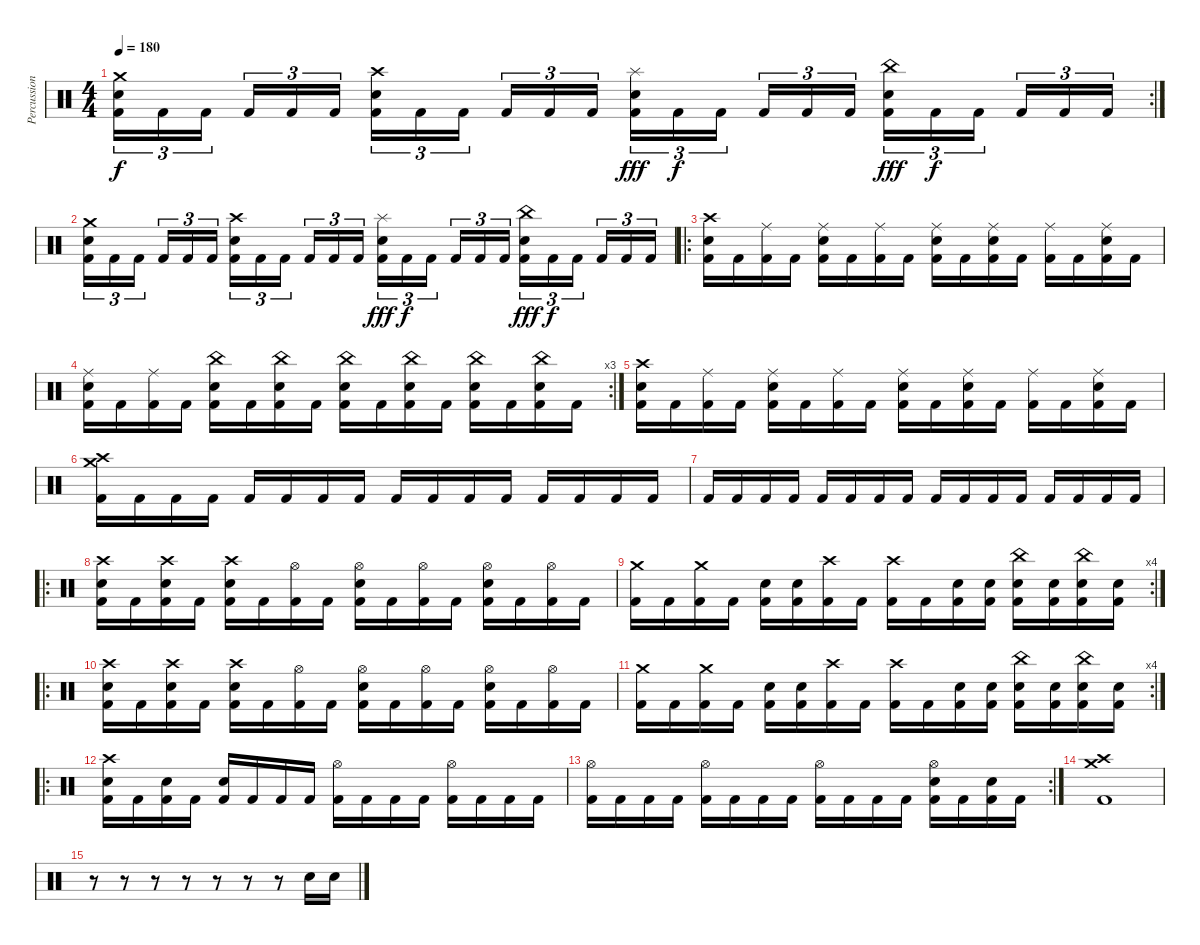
\track ("Percussion" "Percussion") {instrument percussion}
\staff {score}
\articulation defaults
\rc 2
\ts (4 4)
\tempo 180
\clef neutral
\ks c
("Crash medium (hit)" "Electric Snare (hit)" "Kick (hit) 2").16{tu (3 2) dy f} "Kick (hit) 2".16{tu (3 2)} "Kick (hit) 2".16{tu (3 2)} "Kick (hit) 2".16{tu (3 2)} "Kick (hit) 2".16{tu (3 2)} "Kick (hit) 2".16{tu (3 2)} ("Crash high (hit)" "Electric Snare (hit)" "Kick (hit) 2").16{tu (3 2)} "Kick (hit) 2".16{tu (3 2)} "Kick (hit) 2".16{tu (3 2)} "Kick (hit) 2".16{tu (3 2)} "Kick (hit) 2".16{tu (3 2)} "Kick (hit) 2".16{tu (3 2)} ("Splash (hit)" "Electric Snare (hit)" "Kick (hit) 2").16{tu (3 2) dy fff} "Kick (hit) 2".16{tu (3 2) dy f} "Kick (hit) 2".16{tu (3 2)} "Kick (hit) 2".16{tu (3 2)} "Kick (hit) 2".16{tu (3 2)} "Kick (hit) 2".16{tu (3 2)} ("China (hit)" "Electric Snare (hit)" "Kick (hit) 2").16{tu (3 2) dy fff} "Kick (hit) 2".16{tu (3 2) dy f} "Kick (hit) 2".16{tu (3 2)} "Kick (hit) 2".16{tu (3 2)} "Kick (hit) 2".16{tu (3 2)} "Kick (hit) 2".16{tu (3 2)} |
("Crash medium (hit)" "Electric Snare (hit)" "Kick (hit) 2").16{tu (3 2)} "Kick (hit) 2".16{tu (3 2)} "Kick (hit) 2".16{tu (3 2)} "Kick (hit) 2".16{tu (3 2)} "Kick (hit) 2".16{tu (3 2)} "Kick (hit) 2".16{tu (3 2)} ("Crash high (hit)" "Electric Snare (hit)" "Kick (hit) 2").16{tu (3 2)} "Kick (hit) 2".16{tu (3 2)} "Kick (hit) 2".16{tu (3 2)} "Kick (hit) 2".16{tu (3 2)} "Kick (hit) 2".16{tu (3 2)} "Kick (hit) 2".16{tu (3 2)} ("Splash (hit)" "Electric Snare (hit)" "Kick (hit) 2").16{tu (3 2) dy fff} "Kick (hit) 2".16{tu (3 2) dy f} "Kick (hit) 2".16{tu (3 2)} "Kick (hit) 2".16{tu (3 2)} "Kick (hit) 2".16{tu (3 2)} "Kick (hit) 2".16{tu (3 2)} ("China (hit)" "Electric Snare (hit)" "Kick (hit) 2").16{tu (3 2) dy fff} "Kick (hit) 2".16{tu (3 2) dy f} "Kick (hit) 2".16{tu (3 2)} "Kick (hit) 2".16{tu (3 2)} "Kick (hit) 2".16{tu (3 2)} "Kick (hit) 2".16{tu (3 2)} |
\ro
("Crash high (hit)" "Electric Snare (hit)" "Kick (hit) 2").16 "Kick (hit) 2".16 ("Ride (middle)" "Kick (hit) 2").16 "Kick (hit) 2".16 ("Ride (middle)" "Electric Snare (hit)" "Kick (hit) 2").16 "Kick (hit) 2".16 ("Ride (middle)" "Kick (hit) 2").16 "Kick (hit) 2".16 ("Ride (middle)" "Electric Snare (hit)" "Kick (hit) 2").16 "Kick (hit) 2".16 ("Ride (middle)" "Electric Snare (hit)" "Kick (hit) 2").16 "Kick (hit) 2".16 ("Ride (middle)" "Kick (hit) 2").16 "Kick (hit) 2".16 ("Ride (middle)" "Electric Snare (hit)" "Kick (hit) 2").16 "Kick (hit) 2".16 |
\rc 3
("Ride (middle)" "Electric Snare (hit)" "Kick (hit) 2").16 "Kick (hit) 2".16 ("Ride (middle)" "Kick (hit) 2").16 "Kick (hit) 2".16 ("China (hit)" "Electric Snare (hit)" "Kick (hit) 2").16 "Kick (hit) 2".16 ("China (hit)" "Electric Snare (hit)" "Kick (hit) 2").16 "Kick (hit) 2".16 ("China (hit)" "Electric Snare (hit)" "Kick (hit) 2").16 "Kick (hit) 2".16 ("China (hit)" "Electric Snare (hit)" "Kick (hit) 2").16 "Kick (hit) 2".16 ("China (hit)" "Electric Snare (hit)" "Kick (hit) 2").16 "Kick (hit) 2".16 ("China (hit)" "Electric Snare (hit)" "Kick (hit) 2").16 "Kick (hit) 2".16 |
("Crash high (hit)" "Electric Snare (hit)" "Kick (hit) 2").16 "Kick (hit) 2".16 ("Ride (middle)" "Kick (hit) 2").16 "Kick (hit) 2".16 ("Ride (middle)" "Electric Snare (hit)" "Kick (hit) 2").16 "Kick (hit) 2".16 ("Ride (middle)" "Kick (hit) 2").16 "Kick (hit) 2".16 ("Ride (middle)" "Electric Snare (hit)" "Kick (hit) 2").16 "Kick (hit) 2".16 ("Ride (middle)" "Electric Snare (hit)" "Kick (hit) 2").16 "Kick (hit) 2".16 ("Ride (middle)" "Kick (hit) 2").16 "Kick (hit) 2".16 ("Ride (middle)" "Electric Snare (hit)" "Kick (hit) 2").16 "Kick (hit) 2".16 |
("Crash high (hit)" "Crash medium (hit)" "Kick (hit) 2").16 "Kick (hit) 2".16 "Kick (hit) 2".16 "Kick (hit) 2".16 "Kick (hit) 2".16 "Kick (hit) 2".16 "Kick (hit) 2".16 "Kick (hit) 2".16 "Kick (hit) 2".16 "Kick (hit) 2".16 "Kick (hit) 2".16 "Kick (hit) 2".16 "Kick (hit) 2".16 "Kick (hit) 2".16 "Kick (hit) 2".16 "Kick (hit) 2".16 |
"Kick (hit) 2".16 "Kick (hit) 2".16 "Kick (hit) 2".16 "Kick (hit) 2".16 "Kick (hit) 2".16 "Kick (hit) 2".16 "Kick (hit) 2".16 "Kick (hit) 2".16 "Kick (hit) 2".16 "Kick (hit) 2".16 "Kick (hit) 2".16 "Kick (hit) 2".16 "Kick (hit) 2".16 "Kick (hit) 2".16 "Kick (hit) 2".16 "Kick (hit) 2".16 |
\ro
("Crash high (hit)" "Electric Snare (hit)" "Kick (hit) 2").16 "Kick (hit) 2".16 ("Crash high (hit)" "Electric Snare (hit)" "Kick (hit) 2").16 "Kick (hit) 2".16 ("Crash high (hit)" "Electric Snare (hit)" "Kick (hit) 2").16 "Kick (hit) 2".16 ("Hi-Hat (open)" "Kick (hit) 2").16 "Kick (hit) 2".16 ("Hi-Hat (open)" "Electric Snare (hit)" "Kick (hit) 2").16 "Kick (hit) 2".16 ("Hi-Hat (open)" "Kick (hit) 2").16 "Kick (hit) 2".16 ("Hi-Hat (open)" "Electric Snare (hit)" "Kick (hit) 2").16 "Kick (hit) 2".16 ("Hi-Hat (open)" "Kick (hit) 2").16 "Kick (hit) 2".16 |
\rc 4
("Crash medium (hit)" "Kick (hit) 2").16 "Kick (hit) 2".16 ("Crash medium (hit)" "Kick (hit) 2").16 "Kick (hit) 2".16 ("Electric Snare (hit)" "Kick (hit) 2").16 ("Electric Snare (hit)" "Kick (hit) 2").16 ("Crash high (hit)" "Kick (hit) 2").16 "Kick (hit) 2".16 ("Crash high (hit)" "Kick (hit) 2").16 "Kick (hit) 2".16 ("Electric Snare (hit)" "Kick (hit) 2").16 ("Electric Snare (hit)" "Kick (hit) 2").16 ("China (hit)" "Electric Snare (hit)" "Kick (hit) 2").16 ("Electric Snare (hit)" "Kick (hit) 2").16 ("China (hit)" "Electric Snare (hit)" "Kick (hit) 2").16 ("Electric Snare (hit)" "Kick (hit) 2").16 |
\ro
("Crash high (hit)" "Electric Snare (hit)" "Kick (hit) 2").16 "Kick (hit) 2".16 ("Crash high (hit)" "Electric Snare (hit)" "Kick (hit) 2").16 "Kick (hit) 2".16 ("Crash high (hit)" "Electric Snare (hit)" "Kick (hit) 2").16 "Kick (hit) 2".16 ("Hi-Hat (open)" "Kick (hit) 2").16 "Kick (hit) 2".16 ("Hi-Hat (open)" "Electric Snare (hit)" "Kick (hit) 2").16 "Kick (hit) 2".16 ("Hi-Hat (open)" "Kick (hit) 2").16 "Kick (hit) 2".16 ("Hi-Hat (open)" "Electric Snare (hit)" "Kick (hit) 2").16 "Kick (hit) 2".16 ("Hi-Hat (open)" "Kick (hit) 2").16 "Kick (hit) 2".16 |
\rc 4
("Crash medium (hit)" "Kick (hit) 2").16 "Kick (hit) 2".16 ("Crash medium (hit)" "Kick (hit) 2").16 "Kick (hit) 2".16 ("Electric Snare (hit)" "Kick (hit) 2").16 ("Electric Snare (hit)" "Kick (hit) 2").16 ("Crash high (hit)" "Kick (hit) 2").16 "Kick (hit) 2".16 ("Crash high (hit)" "Kick (hit) 2").16 "Kick (hit) 2".16 ("Electric Snare (hit)" "Kick (hit) 2").16 ("Electric Snare (hit)" "Kick (hit) 2").16 ("China (hit)" "Electric Snare (hit)" "Kick (hit) 2").16 ("Electric Snare (hit)" "Kick (hit) 2").16 ("China (hit)" "Electric Snare (hit)" "Kick (hit) 2").16 ("Electric Snare (hit)" "Kick (hit) 2").16 |
\ro
("Crash high (hit)" "Electric Snare (hit)" "Kick (hit) 2").16 "Kick (hit) 2".16 ("Electric Snare (hit)" "Kick (hit) 2").16 "Kick (hit) 2".16 ("Electric Snare (hit)" "Kick (hit) 2").16 "Kick (hit) 2".16 "Kick (hit) 2".16 "Kick (hit) 2".16 ("Hi-Hat (open)" "Kick (hit) 2").16 "Kick (hit) 2".16 "Kick (hit) 2".16 "Kick (hit) 2".16 ("Hi-Hat (open)" "Kick (hit) 2").16 "Kick (hit) 2".16 "Kick (hit) 2".16 "Kick (hit) 2".16 |
\rc 2
("Hi-Hat (open)" "Kick (hit) 2").16 "Kick (hit) 2".16 "Kick (hit) 2".16 "Kick (hit) 2".16 ("Hi-Hat (open)" "Kick (hit) 2").16 "Kick (hit) 2".16 "Kick (hit) 2".16 "Kick (hit) 2".16 ("Hi-Hat (open)" "Kick (hit) 2").16 "Kick (hit) 2".16 "Kick (hit) 2".16 "Kick (hit) 2".16 ("Hi-Hat (open)" "Electric Snare (hit)" "Kick (hit) 2").16 "Kick (hit) 2".16 ("Electric Snare (hit)" "Kick (hit) 2").16 "Kick (hit) 2".16 |
("Crash high (hit)" "Crash medium (hit)" "Kick (hit) 2").1 |
r.8 r.8 r.8 r.8 r.8 r.8 r.8 "Electric Snare (hit)".16 "Electric Snare (hit)".16
